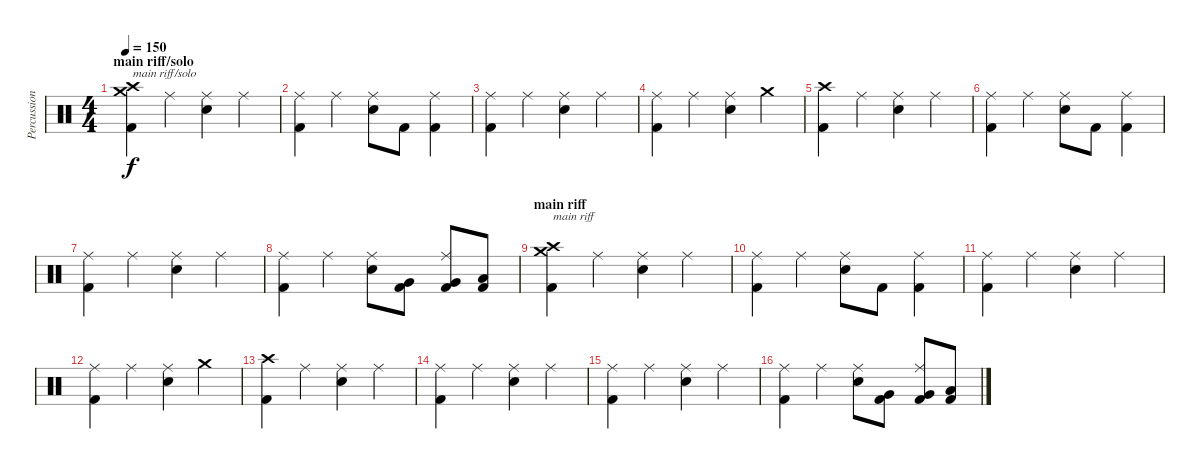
\track ("Percussion" "Percussion") {instrument percussion}
\staff {score}
\articulation defaults
\ts (4 4)
\section ("" "main riff/solo")
\tempo 150
\clef neutral
\ks c
("Crash medium (hit)" "Crash high (hit)" "Kick (hit) 2").4{txt "main riff/solo" dy f} "Ride (middle)".4 ("Ride (middle)" "Snare (hit) 2").4 "Ride (middle)".4 |
("Ride (middle)" "Kick (hit) 2").4 "Ride (middle)".4 ("Ride (middle)" "Snare (hit) 2").8 "Kick (hit) 2".8 ("Ride (middle)" "Kick (hit) 2").4 |
("Ride (middle)" "Kick (hit) 2").4 "Ride (middle)".4 ("Ride (middle)" "Snare (hit) 2").4 "Ride (middle)".4 |
("Ride (middle)" "Kick (hit) 2").4 "Ride (middle)".4 ("Ride (middle)" "Snare (hit) 2").4 "Crash medium (hit)".4 |
("Crash high (hit)" "Kick (hit) 2").4 "Ride (middle)".4 ("Ride (middle)" "Snare (hit) 2").4 "Ride (middle)".4 |
("Ride (middle)" "Kick (hit) 2").4 "Ride (middle)".4 ("Ride (middle)" "Snare (hit) 2").8 "Kick (hit) 2".8 ("Ride (middle)" "Kick (hit) 2").4 |
("Ride (middle)" "Kick (hit) 2").4 "Ride (middle)".4 ("Ride (middle)" "Snare (hit) 2").4 "Ride (middle)".4 |
("Ride (middle)" "Kick (hit) 2").4 "Ride (middle)".4 ("Ride (middle)" "Snare (hit) 2").8 ("Very Low Tom (hit)" "Kick (hit) 2").8 ("Ride (middle)" "Very Low Tom (hit)" "Kick (hit) 2").8 ("Low Floor Tom (hit)" "Kick (hit) 2").8 |
\section ("" "main riff")
("Crash medium (hit)" "Crash high (hit)" "Kick (hit) 2").4{txt "main riff"} "Ride (middle)".4 ("Ride (middle)" "Snare (hit) 2").4 "Ride (middle)".4 |
("Ride (middle)" "Kick (hit) 2").4 "Ride (middle)".4 ("Ride (middle)" "Snare (hit) 2").8 "Kick (hit) 2".8 ("Ride (middle)" "Kick (hit) 2").4 |
("Ride (middle)" "Kick (hit) 2").4 "Ride (middle)".4 ("Ride (middle)" "Snare (hit) 2").4 "Ride (middle)".4 |
("Ride (middle)" "Kick (hit) 2").4 "Ride (middle)".4 ("Ride (middle)" "Snare (hit) 2").4 "Crash medium (hit)".4 |
("Crash high (hit)" "Kick (hit) 2").4 "Ride (middle)".4 ("Ride (middle)" "Snare (hit) 2").4 "Ride (middle)".4 |
("Ride (middle)" "Kick (hit) 2").4 "Ride (middle)".4 ("Ride (middle)" "Snare (hit) 2").4 "Ride (middle)".4 |
("Ride (middle)" "Kick (hit) 2").4 "Ride (middle)".4 ("Ride (middle)" "Snare (hit) 2").4 "Ride (middle)".4 |
("Ride (middle)" "Kick (hit) 2").4 "Ride (middle)".4 ("Ride (middle)" "Snare (hit) 2").8 ("Very Low Tom (hit)" "Kick (hit) 2").8 ("Ride (middle)" "Very Low Tom (hit)" "Kick (hit) 2").8 ("Low Floor Tom (hit)" "Kick (hit) 2").8
